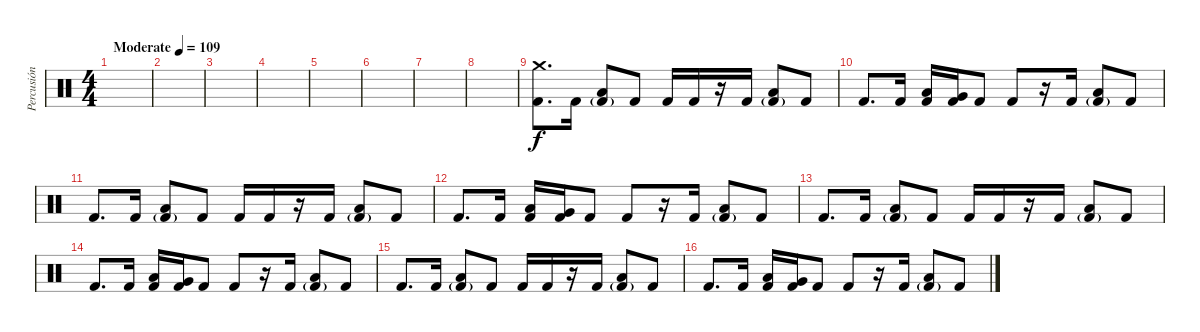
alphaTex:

\track ("Percusión" "Percusión") {instrument percussion}
\staff {score}
\articulation defaults
\ts (4 4)
\tempo (109 "Moderate")
\clef neutral
\ks c
|
|
|
|
|
|
|
|
("Crash medium (hit)" "Kick (hit) 2").8{d} "Kick (hit) 2".16 ("Low Tom (hit)" "Kick (hit) 2"{g}).8 "Kick (hit) 2".8 "Kick (hit) 2".16 "Kick (hit) 2".16 r.16 "Kick (hit) 2".16 ("Low Tom (hit)" "Kick (hit) 2"{g}).8 "Kick (hit) 2".8 |
"Kick (hit) 2".8{d} "Kick (hit) 2".16 ("Low Tom (hit)" "Kick (hit) 2").16 ("Very Low Tom (hit)" "Kick (hit) 2").16 "Kick (hit) 2".8 "Kick (hit) 2".8 r.16 "Kick (hit) 2".16 ("Low Tom (hit)" "Kick (hit) 2"{g}).8 "Kick (hit) 2".8 |
"Kick (hit) 2".8{d} "Kick (hit) 2".16 ("Low Tom (hit)" "Kick (hit) 2"{g}).8 "Kick (hit) 2".8 "Kick (hit) 2".16 "Kick (hit) 2".16 r.16 "Kick (hit) 2".16 ("Low Tom (hit)" "Kick (hit) 2"{g}).8 "Kick (hit) 2".8 |
"Kick (hit) 2".8{d} "Kick (hit) 2".16 ("Low Tom (hit)" "Kick (hit) 2").16 ("Very Low Tom (hit)" "Kick (hit) 2").16 "Kick (hit) 2".8 "Kick (hit) 2".8 r.16 "Kick (hit) 2".16 ("Low Tom (hit)" "Kick (hit) 2"{g}).8 "Kick (hit) 2".8 |
"Kick (hit) 2".8{d} "Kick (hit) 2".16 ("Low Tom (hit)" "Kick (hit) 2"{g}).8 "Kick (hit) 2".8 "Kick (hit) 2".16 "Kick (hit) 2".16 r.16 "Kick (hit) 2".16 ("Low Tom (hit)" "Kick (hit) 2"{g}).8 "Kick (hit) 2".8 |
"Kick (hit) 2".8{d} "Kick (hit) 2".16 ("Low Tom (hit)" "Kick (hit) 2").16 ("Very Low Tom (hit)" "Kick (hit) 2").16 "Kick (hit) 2".8 "Kick (hit) 2".8 r.16 "Kick (hit) 2".16 ("Low Tom (hit)" "Kick (hit) 2"{g}).8 "Kick (hit) 2".8 |
"Kick (hit) 2".8{d} "Kick (hit) 2".16 ("Low Tom (hit)" "Kick (hit) 2"{g}).8 "Kick (hit) 2".8 "Kick (hit) 2".16 "Kick (hit) 2".16 r.16 "Kick (hit) 2".16 ("Low Tom (hit)" "Kick (hit) 2"{g}).8 "Kick (hit) 2".8 |
"Kick (hit) 2".8{d} "Kick (hit) 2".16 ("Low Tom (hit)" "Kick (hit) 2").16 ("Very Low Tom (hit)" "Kick (hit) 2").16 "Kick (hit) 2".8 "Kick (hit) 2".8 r.16 "Kick (hit) 2".16 ("Low Tom (hit)" "Kick (hit) 2"{g}).8 "Kick (hit) 2".8
